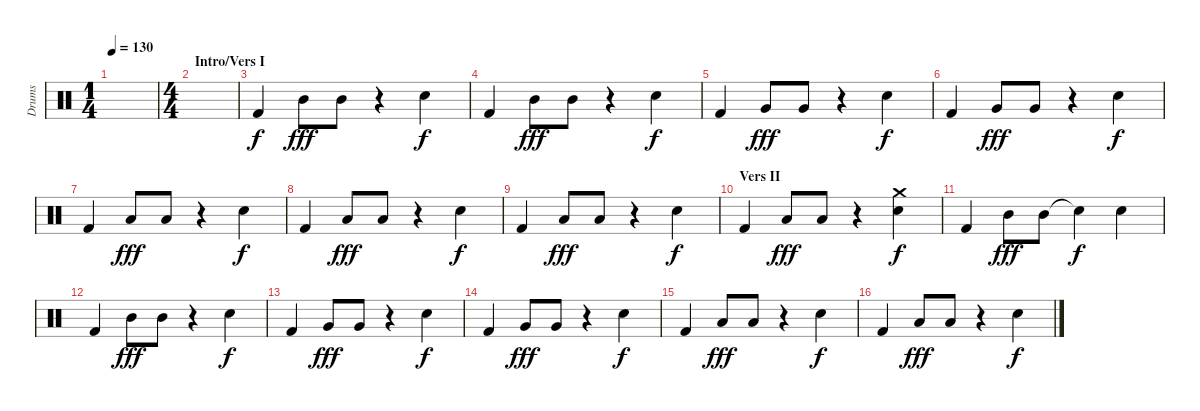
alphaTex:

\track ("Drums" "Drums") {instrument percussion}
\staff {score}
\articulation defaults
\ts (1 4)
\tempo 130
\clef neutral
\ks c
|
\ts (4 4)
\section ("" "Intro/Vers I")
|
"Kick (hit) 2".4 "Mid Tom (hit)".8{dy fff} "Mid Tom (hit)".8 r.4 "Electric Snare (hit)".4{dy f} |
"Kick (hit) 2".4 "Mid Tom (hit)".8{dy fff} "Mid Tom (hit)".8 r.4 "Electric Snare (hit)".4{dy f} |
"Kick (hit) 2".4 "Very Low Tom (hit)".8{dy fff} "Very Low Tom (hit)".8 r.4 "Electric Snare (hit)".4{dy f} |
"Kick (hit) 2".4 "Very Low Tom (hit)".8{dy fff} "Very Low Tom (hit)".8 r.4 "Electric Snare (hit)".4{dy f} |
"Kick (hit) 2".4 "Low Tom (hit)".8{dy fff} "Low Tom (hit)".8 r.4 "Electric Snare (hit)".4{dy f} |
"Kick (hit) 2".4 "Low Tom (hit)".8{dy fff} "Low Tom (hit)".8 r.4 "Electric Snare (hit)".4{dy f} |
"Kick (hit) 2".4 "Low Floor Tom (hit)".8{dy fff} "Low Floor Tom (hit)".8 r.4 "Electric Snare (hit)".4{dy f} |
\section ("" "Vers II")
"Kick (hit) 2".4 "Low Floor Tom (hit)".8{dy fff} "Low Floor Tom (hit)".8 r.4 ("Crash medium (hit)" "Electric Snare (hit)").4{dy f} |
"Kick (hit) 2".4 "Mid Tom (hit)".8{dy fff} "Mid Tom (hit)".8 "Snare (hit)"{t}.4{dy f} "Electric Snare (hit)".4 |
"Kick (hit) 2".4 "Mid Tom (hit)".8{dy fff} "Mid Tom (hit)".8 r.4 "Electric Snare (hit)".4{dy f} |
"Kick (hit) 2".4 "Very Low Tom (hit)".8{dy fff} "Very Low Tom (hit)".8 r.4 "Electric Snare (hit)".4{dy f} |
"Kick (hit) 2".4 "Very Low Tom (hit)".8{dy fff} "Very Low Tom (hit)".8 r.4 "Electric Snare (hit)".4{dy f} |
"Kick (hit) 2".4 "Low Tom (hit)".8{dy fff} "Low Tom (hit)".8 r.4 "Electric Snare (hit)".4{dy f} |
"Kick (hit) 2".4 "Low Tom (hit)".8{dy fff} "Low Tom (hit)".8 r.4 "Electric Snare (hit)".4{dy f}
